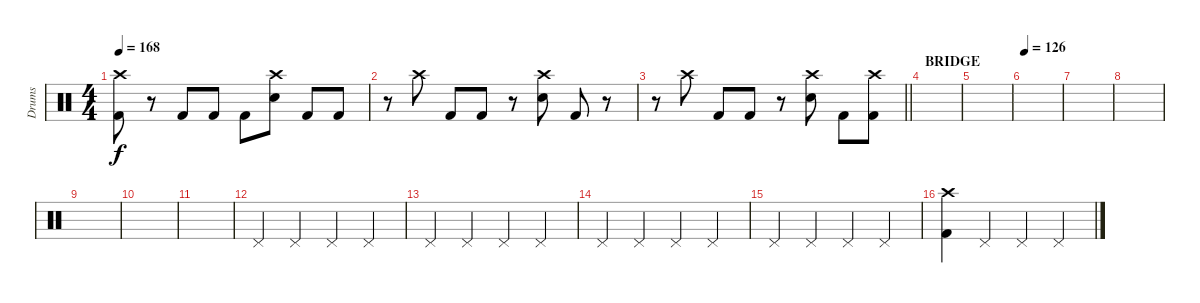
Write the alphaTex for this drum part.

\track ("Drums" "Drums") {instrument percussion}
\staff {score}
\articulation defaults
\ts (4 4)
\tempo 168
\clef neutral
\ks c
("Crash high (hit)" "Kick (hit) 2").8{dy f} r.8 "Kick (hit) 2".8 "Kick (hit) 2".8 "Kick (hit) 2".8 ("Crash high (hit)" "Snare (hit) 2").8 "Kick (hit) 2".8 "Kick (hit) 2".8 |
r.8 "Crash high (hit)".8 "Kick (hit) 2".8 "Kick (hit) 2".8 r.8 ("Crash high (hit)" "Snare (hit) 2").8 "Kick (hit) 2".8 r.8 |
\barLineRight lightlight
r.8 "Crash high (hit)".8 "Kick (hit) 2".8 "Kick (hit) 2".8 r.8 ("Crash high (hit)" "Snare (hit) 2").8 "Kick (hit) 2".8 ("Crash high (hit)" "Kick (hit) 2").8 |
\section ("" "BRIDGE")
|
|
\tempo 126
|
|
|
|
|
|
"Pedal Hi-Hat (hit)".4 "Pedal Hi-Hat (hit)".4 "Pedal Hi-Hat (hit)".4 "Pedal Hi-Hat (hit)".4 |
"Pedal Hi-Hat (hit)".4 "Pedal Hi-Hat (hit)".4 "Pedal Hi-Hat (hit)".4 "Pedal Hi-Hat (hit)".4 |
"Pedal Hi-Hat (hit)".4 "Pedal Hi-Hat (hit)".4 "Pedal Hi-Hat (hit)".4 "Pedal Hi-Hat (hit)".4 |
"Pedal Hi-Hat (hit)".4 "Pedal Hi-Hat (hit)".4 "Pedal Hi-Hat (hit)".4 "Pedal Hi-Hat (hit)".4 |
("Crash high (hit)" "Kick (hit) 2").4 "Pedal Hi-Hat (hit)".4 "Pedal Hi-Hat (hit)".4 "Pedal Hi-Hat (hit)".4
